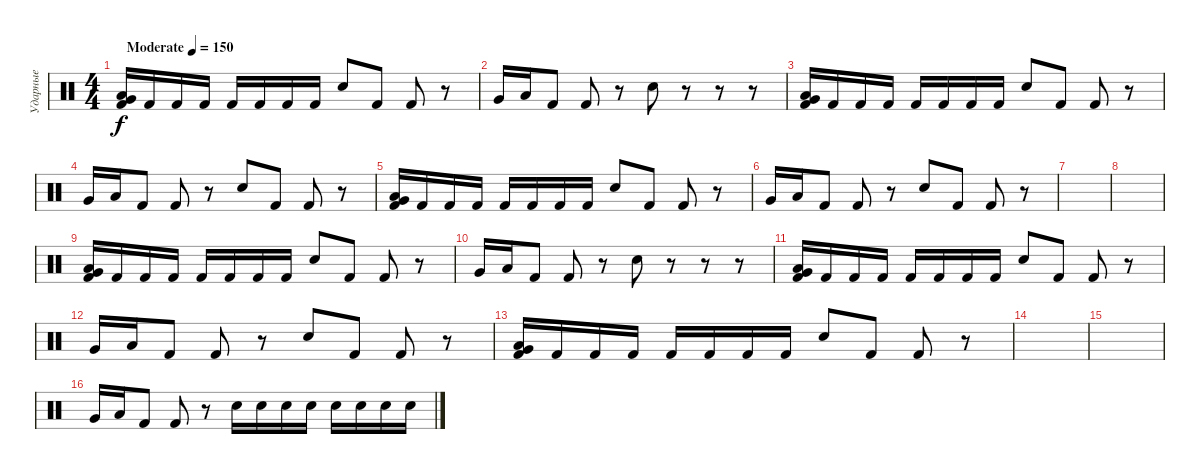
\track ("Ударные" "Ударные") {instrument percussion}
\staff {score}
\articulation defaults
\ts (4 4)
\tempo (150 "Moderate")
\clef neutral
\ks c
("Very Low Tom (hit)" "Low Floor Tom (hit)" "Kick (hit) 2").16{dy f} "Kick (hit) 2".16 "Kick (hit) 2".16 "Kick (hit) 2".16 "Kick (hit) 2".16 "Kick (hit) 2".16 "Kick (hit) 2".16 "Kick (hit) 2".16 "Electric Snare (hit)".8 "Kick (hit) 2".8 "Kick (hit) 2".8 r.8 |
"Very Low Tom (hit)".16 "Low Floor Tom (hit)".16 "Kick (hit) 2".8 "Kick (hit) 2".8 r.8 "Electric Snare (hit)".8 r.8 r.8 r.8 |
("Very Low Tom (hit)" "Low Floor Tom (hit)" "Kick (hit) 2").16 "Kick (hit) 2".16 "Kick (hit) 2".16 "Kick (hit) 2".16 "Kick (hit) 2".16 "Kick (hit) 2".16 "Kick (hit) 2".16 "Kick (hit) 2".16 "Electric Snare (hit)".8 "Kick (hit) 2".8 "Kick (hit) 2".8 r.8 |
"Very Low Tom (hit)".16 "Low Floor Tom (hit)".16 "Kick (hit) 2".8 "Kick (hit) 2".8 r.8 "Electric Snare (hit)".8 "Kick (hit) 2".8 "Kick (hit) 2".8 r.8 |
("Very Low Tom (hit)" "Low Floor Tom (hit)" "Kick (hit) 2").16 "Kick (hit) 2".16 "Kick (hit) 2".16 "Kick (hit) 2".16 "Kick (hit) 2".16 "Kick (hit) 2".16 "Kick (hit) 2".16 "Kick (hit) 2".16 "Electric Snare (hit)".8 "Kick (hit) 2".8 "Kick (hit) 2".8 r.8 |
"Very Low Tom (hit)".16 "Low Floor Tom (hit)".16 "Kick (hit) 2".8 "Kick (hit) 2".8 r.8 "Electric Snare (hit)".8 "Kick (hit) 2".8 "Kick (hit) 2".8 r.8 |
|
|
("Very Low Tom (hit)" "Low Floor Tom (hit)" "Kick (hit) 2").16 "Kick (hit) 2".16 "Kick (hit) 2".16 "Kick (hit) 2".16 "Kick (hit) 2".16 "Kick (hit) 2".16 "Kick (hit) 2".16 "Kick (hit) 2".16 "Electric Snare (hit)".8 "Kick (hit) 2".8 "Kick (hit) 2".8 r.8 |
"Very Low Tom (hit)".16 "Low Floor Tom (hit)".16 "Kick (hit) 2".8 "Kick (hit) 2".8 r.8 "Electric Snare (hit)".8 r.8 r.8 r.8 |
("Very Low Tom (hit)" "Low Floor Tom (hit)" "Kick (hit) 2").16 "Kick (hit) 2".16 "Kick (hit) 2".16 "Kick (hit) 2".16 "Kick (hit) 2".16 "Kick (hit) 2".16 "Kick (hit) 2".16 "Kick (hit) 2".16 "Electric Snare (hit)".8 "Kick (hit) 2".8 "Kick (hit) 2".8 r.8 |
"Very Low Tom (hit)".16 "Low Floor Tom (hit)".16 "Kick (hit) 2".8 "Kick (hit) 2".8 r.8 "Electric Snare (hit)".8 "Kick (hit) 2".8 "Kick (hit) 2".8 r.8 |
("Very Low Tom (hit)" "Low Floor Tom (hit)" "Kick (hit) 2").16 "Kick (hit) 2".16 "Kick (hit) 2".16 "Kick (hit) 2".16 "Kick (hit) 2".16 "Kick (hit) 2".16 "Kick (hit) 2".16 "Kick (hit) 2".16 "Electric Snare (hit)".8 "Kick (hit) 2".8 "Kick (hit) 2".8 r.8 |
|
|
"Very Low Tom (hit)".16 "Low Floor Tom (hit)".16 "Kick (hit) 2".8 "Kick (hit) 2".8 r.8 "Electric Snare (hit)".16 "Electric Snare (hit)".16 "Electric Snare (hit)".16 "Electric Snare (hit)".16 "Electric Snare (hit)".16 "Electric Snare (hit)".16 "Electric Snare (hit)".16 "Electric Snare (hit)".16
